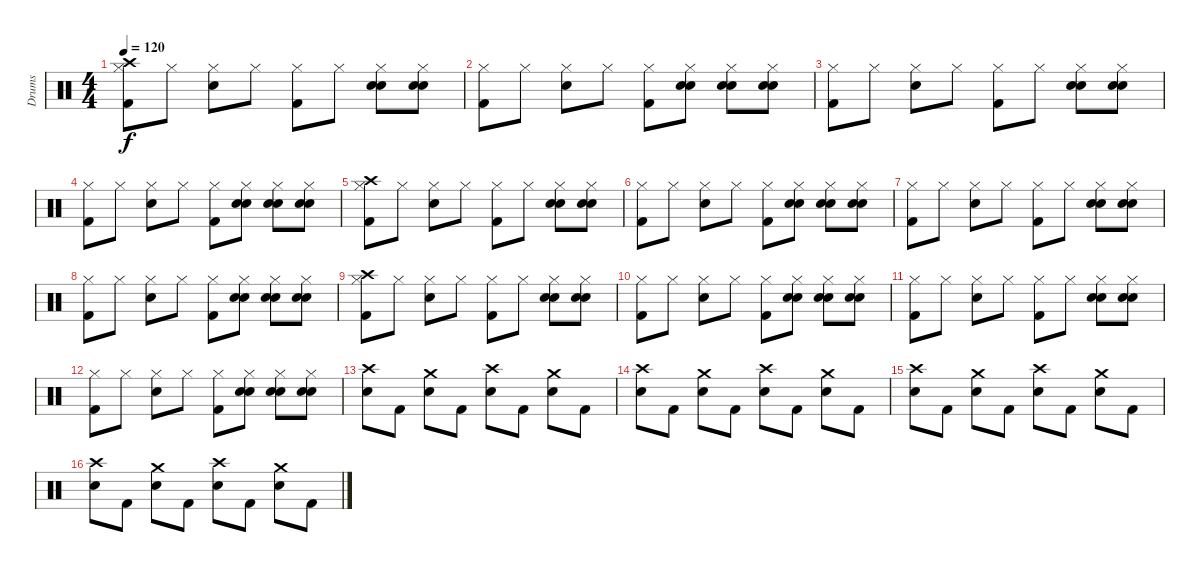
\track ("Drums" "Drums") {instrument percussion}
\staff {score}
\articulation defaults
\ts (4 4)
\tempo 120
\clef neutral
\ks c
("Crash high (hit)" "Hi-Hat (closed)" "Kick (hit) 2").8{dy f} "Hi-Hat (closed)".8 ("Hi-Hat (closed)" "Electric Snare (hit)").8 "Hi-Hat (closed)".8 ("Hi-Hat (closed)" "Kick (hit) 2").8 "Hi-Hat (closed)".8 ("Hi-Hat (closed)" "Hand Clap (hit)" "Electric Snare (hit)").8 ("Hi-Hat (closed)" "Hand Clap (hit)" "Electric Snare (hit)").8 |
("Hi-Hat (closed)" "Kick (hit) 2").8 "Hi-Hat (closed)".8 ("Hi-Hat (closed)" "Electric Snare (hit)").8 "Hi-Hat (closed)".8 ("Hi-Hat (closed)" "Kick (hit) 2").8 ("Hi-Hat (closed)" "Hand Clap (hit)" "Electric Snare (hit)").8 ("Hi-Hat (closed)" "Hand Clap (hit)" "Electric Snare (hit)").8 ("Hi-Hat (closed)" "Hand Clap (hit)" "Electric Snare (hit)").8 |
("Hi-Hat (closed)" "Kick (hit) 2").8 "Hi-Hat (closed)".8 ("Hi-Hat (closed)" "Electric Snare (hit)").8 "Hi-Hat (closed)".8 ("Hi-Hat (closed)" "Kick (hit) 2").8 "Hi-Hat (closed)".8 ("Hi-Hat (closed)" "Hand Clap (hit)" "Electric Snare (hit)").8 ("Hi-Hat (closed)" "Hand Clap (hit)" "Electric Snare (hit)").8 |
("Hi-Hat (closed)" "Kick (hit) 2").8 "Hi-Hat (closed)".8 ("Hi-Hat (closed)" "Electric Snare (hit)").8 "Hi-Hat (closed)".8 ("Hi-Hat (closed)" "Kick (hit) 2").8 ("Hi-Hat (closed)" "Hand Clap (hit)" "Electric Snare (hit)").8 ("Hi-Hat (closed)" "Hand Clap (hit)" "Electric Snare (hit)").8 ("Hi-Hat (closed)" "Hand Clap (hit)" "Electric Snare (hit)").8 |
("Crash high (hit)" "Hi-Hat (closed)" "Kick (hit) 2").8 "Hi-Hat (closed)".8 ("Hi-Hat (closed)" "Electric Snare (hit)").8 "Hi-Hat (closed)".8 ("Hi-Hat (closed)" "Kick (hit) 2").8 "Hi-Hat (closed)".8 ("Hi-Hat (closed)" "Hand Clap (hit)" "Electric Snare (hit)").8 ("Hi-Hat (closed)" "Hand Clap (hit)" "Electric Snare (hit)").8 |
("Hi-Hat (closed)" "Kick (hit) 2").8 "Hi-Hat (closed)".8 ("Hi-Hat (closed)" "Electric Snare (hit)").8 "Hi-Hat (closed)".8 ("Hi-Hat (closed)" "Kick (hit) 2").8 ("Hi-Hat (closed)" "Hand Clap (hit)" "Electric Snare (hit)").8 ("Hi-Hat (closed)" "Hand Clap (hit)" "Electric Snare (hit)").8 ("Hi-Hat (closed)" "Hand Clap (hit)" "Electric Snare (hit)").8 |
("Hi-Hat (closed)" "Kick (hit) 2").8 "Hi-Hat (closed)".8 ("Hi-Hat (closed)" "Electric Snare (hit)").8 "Hi-Hat (closed)".8 ("Hi-Hat (closed)" "Kick (hit) 2").8 "Hi-Hat (closed)".8 ("Hi-Hat (closed)" "Hand Clap (hit)" "Electric Snare (hit)").8 ("Hi-Hat (closed)" "Hand Clap (hit)" "Electric Snare (hit)").8 |
("Hi-Hat (closed)" "Kick (hit) 2").8 "Hi-Hat (closed)".8 ("Hi-Hat (closed)" "Electric Snare (hit)").8 "Hi-Hat (closed)".8 ("Hi-Hat (closed)" "Kick (hit) 2").8 ("Hi-Hat (closed)" "Hand Clap (hit)" "Electric Snare (hit)").8 ("Hi-Hat (closed)" "Hand Clap (hit)" "Electric Snare (hit)").8 ("Hi-Hat (closed)" "Hand Clap (hit)" "Electric Snare (hit)").8 |
("Crash high (hit)" "Hi-Hat (closed)" "Kick (hit) 2").8 "Hi-Hat (closed)".8 ("Hi-Hat (closed)" "Electric Snare (hit)").8 "Hi-Hat (closed)".8 ("Hi-Hat (closed)" "Kick (hit) 2").8 "Hi-Hat (closed)".8 ("Hi-Hat (closed)" "Hand Clap (hit)" "Electric Snare (hit)").8 ("Hi-Hat (closed)" "Hand Clap (hit)" "Electric Snare (hit)").8 |
("Hi-Hat (closed)" "Kick (hit) 2").8 "Hi-Hat (closed)".8 ("Hi-Hat (closed)" "Electric Snare (hit)").8 "Hi-Hat (closed)".8 ("Hi-Hat (closed)" "Kick (hit) 2").8 ("Hi-Hat (closed)" "Hand Clap (hit)" "Electric Snare (hit)").8 ("Hi-Hat (closed)" "Hand Clap (hit)" "Electric Snare (hit)").8 ("Hi-Hat (closed)" "Hand Clap (hit)" "Electric Snare (hit)").8 |
("Hi-Hat (closed)" "Kick (hit) 2").8 "Hi-Hat (closed)".8 ("Hi-Hat (closed)" "Electric Snare (hit)").8 "Hi-Hat (closed)".8 ("Hi-Hat (closed)" "Kick (hit) 2").8 "Hi-Hat (closed)".8 ("Hi-Hat (closed)" "Hand Clap (hit)" "Electric Snare (hit)").8 ("Hi-Hat (closed)" "Hand Clap (hit)" "Electric Snare (hit)").8 |
("Hi-Hat (closed)" "Kick (hit) 2").8 "Hi-Hat (closed)".8 ("Hi-Hat (closed)" "Electric Snare (hit)").8 "Hi-Hat (closed)".8 ("Hi-Hat (closed)" "Kick (hit) 2").8 ("Hi-Hat (closed)" "Hand Clap (hit)" "Electric Snare (hit)").8 ("Hi-Hat (closed)" "Hand Clap (hit)" "Electric Snare (hit)").8 ("Hi-Hat (closed)" "Hand Clap (hit)" "Electric Snare (hit)").8 |
("Crash high (hit)" "Electric Snare (hit)").8 "Kick (hit) 2".8 ("Crash medium (hit)" "Electric Snare (hit)").8 "Kick (hit) 2".8 ("Crash high (hit)" "Electric Snare (hit)").8 "Kick (hit) 2".8 ("Crash medium (hit)" "Electric Snare (hit)").8 "Kick (hit) 2".8 |
("Crash high (hit)" "Electric Snare (hit)").8 "Kick (hit) 2".8 ("Crash medium (hit)" "Electric Snare (hit)").8 "Kick (hit) 2".8 ("Crash high (hit)" "Electric Snare (hit)").8 "Kick (hit) 2".8 ("Crash medium (hit)" "Electric Snare (hit)").8 "Kick (hit) 2".8 |
("Crash high (hit)" "Electric Snare (hit)").8 "Kick (hit) 2".8 ("Crash medium (hit)" "Electric Snare (hit)").8 "Kick (hit) 2".8 ("Crash high (hit)" "Electric Snare (hit)").8 "Kick (hit) 2".8 ("Crash medium (hit)" "Electric Snare (hit)").8 "Kick (hit) 2".8 |
("Crash high (hit)" "Electric Snare (hit)").8 "Kick (hit) 2".8 ("Crash medium (hit)" "Electric Snare (hit)").8 "Kick (hit) 2".8 ("Crash high (hit)" "Electric Snare (hit)").8 "Kick (hit) 2".8 ("Crash medium (hit)" "Electric Snare (hit)").8 "Kick (hit) 2".8
